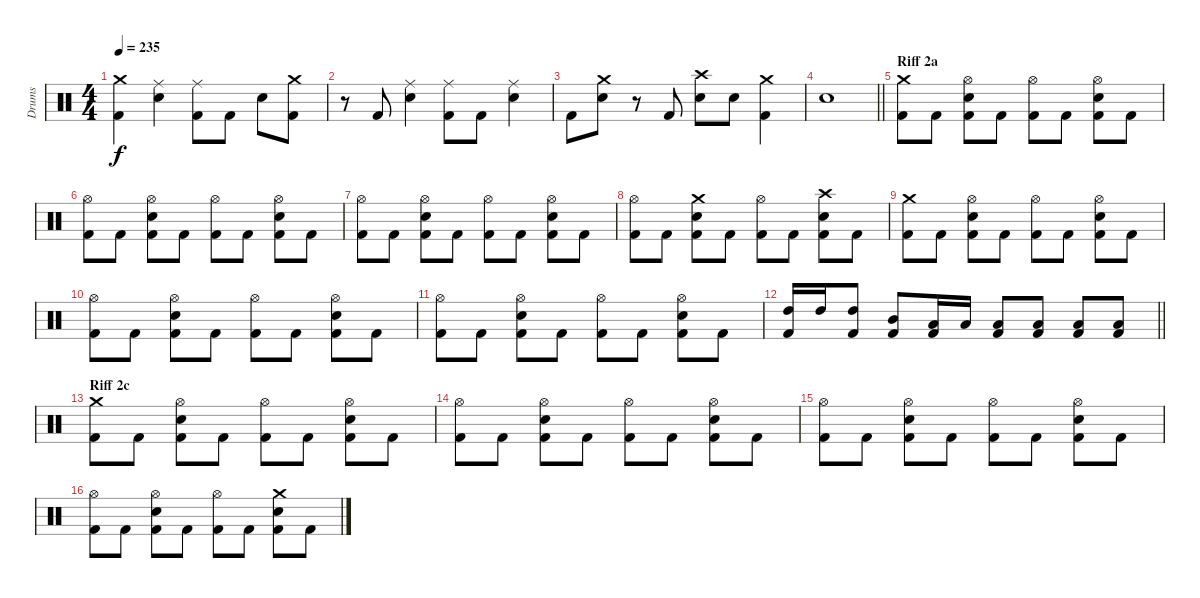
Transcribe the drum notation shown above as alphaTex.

\track ("Drums" "Drums") {instrument percussion}
\staff {score}
\articulation defaults
\ts (4 4)
\tempo 235
\clef neutral
\ks aminor
("Crash medium (hit)" "Kick (hit) 2").4{dy f} ("Ride (middle)" "Electric Snare (hit)").4 ("Ride (middle)" "Kick (hit) 2").8 "Kick (hit) 2".8 "Electric Snare (hit)".8 ("Kick (hit) 2" "Crash medium (hit)").8 |
r.8 "Kick (hit) 2".8 ("Electric Snare (hit)" "Ride (middle)").4 ("Kick (hit) 2" "Ride (middle)").8 "Kick (hit) 2".8 ("Electric Snare (hit)" "Ride (middle)").4 |
"Kick (hit) 2".8 ("Crash medium (hit)" "Electric Snare (hit)").8 r.8 "Kick (hit) 2".8 ("Electric Snare (hit)" "Crash high (hit)").8 "Electric Snare (hit)".8 ("Kick (hit) 2" "Crash medium (hit)").4 |
\barLineRight lightlight "Electric Snare (hit)".1
|
\section ("" "Riff 2a")
("Crash medium (hit)" "Kick (hit) 2").8 "Kick (hit) 2".8 ("Electric Snare (hit)" "Kick (hit) 2" "Hi-Hat (open)").8 "Kick (hit) 2".8 ("Hi-Hat (open)" "Kick (hit) 2").8 "Kick (hit) 2".8 ("Hi-Hat (open)" "Kick (hit) 2" "Electric Snare (hit)").8 "Kick (hit) 2".8 |
("Hi-Hat (open)" "Kick (hit) 2").8 "Kick (hit) 2".8 ("Hi-Hat (open)" "Kick (hit) 2" "Electric Snare (hit)").8 "Kick (hit) 2".8 ("Hi-Hat (open)" "Kick (hit) 2").8 "Kick (hit) 2".8 ("Hi-Hat (open)" "Kick (hit) 2" "Electric Snare (hit)").8 "Kick (hit) 2".8 |
("Hi-Hat (open)" "Kick (hit) 2").8 "Kick (hit) 2".8 ("Hi-Hat (open)" "Kick (hit) 2" "Electric Snare (hit)").8 "Kick (hit) 2".8 ("Hi-Hat (open)" "Kick (hit) 2").8 "Kick (hit) 2".8 ("Hi-Hat (open)" "Kick (hit) 2" "Electric Snare (hit)").8 "Kick (hit) 2".8 |
("Hi-Hat (open)" "Kick (hit) 2").8 "Kick (hit) 2".8 ("Crash medium (hit)" "Kick (hit) 2" "Electric Snare (hit)").8 "Kick (hit) 2".8 ("Hi-Hat (open)" "Kick (hit) 2").8 "Kick (hit) 2".8 ("Crash high (hit)" "Kick (hit) 2" "Electric Snare (hit)").8 "Kick (hit) 2".8 |
("Crash medium (hit)" "Kick (hit) 2").8 "Kick (hit) 2".8 ("Electric Snare (hit)" "Kick (hit) 2" "Hi-Hat (open)").8 "Kick (hit) 2".8 ("Hi-Hat (open)" "Kick (hit) 2").8 "Kick (hit) 2".8 ("Hi-Hat (open)" "Kick (hit) 2" "Electric Snare (hit)").8 "Kick (hit) 2".8 |
("Hi-Hat (open)" "Kick (hit) 2").8 "Kick (hit) 2".8 ("Hi-Hat (open)" "Kick (hit) 2" "Electric Snare (hit)").8 "Kick (hit) 2".8 ("Hi-Hat (open)" "Kick (hit) 2").8 "Kick (hit) 2".8 ("Hi-Hat (open)" "Kick (hit) 2" "Electric Snare (hit)").8 "Kick (hit) 2".8 |
("Hi-Hat (open)" "Kick (hit) 2").8 "Kick (hit) 2".8 ("Hi-Hat (open)" "Kick (hit) 2" "Electric Snare (hit)").8 "Kick (hit) 2".8 ("Hi-Hat (open)" "Kick (hit) 2").8 "Kick (hit) 2".8 ("Hi-Hat (open)" "Kick (hit) 2" "Electric Snare (hit)").8 "Kick (hit) 2".8 |
\barLineRight lightlight
("High Tom (hit)" "Kick (hit) 2").16 "High Tom (hit)".16 ("High Tom (hit)" "Kick (hit) 2").8 ("Mid Tom (hit)" "Kick (hit) 2").8 ("Low Tom (hit)" "Kick (hit) 2").16 "Low Tom (hit)".16 ("Low Tom (hit)" "Kick (hit) 2").8 ("Low Tom (hit)" "Kick (hit) 2").8 ("Kick (hit) 2" "Low Floor Tom (hit)").8 ("Kick (hit) 2" "Low Floor Tom (hit)").8 |
\section ("" "Riff 2c")
("Crash medium (hit)" "Kick (hit) 2").8 "Kick (hit) 2".8 ("Electric Snare (hit)" "Kick (hit) 2" "Hi-Hat (open)").8 "Kick (hit) 2".8 ("Hi-Hat (open)" "Kick (hit) 2").8 "Kick (hit) 2".8 ("Hi-Hat (open)" "Kick (hit) 2" "Electric Snare (hit)").8 "Kick (hit) 2".8 |
("Hi-Hat (open)" "Kick (hit) 2").8 "Kick (hit) 2".8 ("Hi-Hat (open)" "Kick (hit) 2" "Electric Snare (hit)").8 "Kick (hit) 2".8 ("Hi-Hat (open)" "Kick (hit) 2").8 "Kick (hit) 2".8 ("Hi-Hat (open)" "Kick (hit) 2" "Electric Snare (hit)").8 "Kick (hit) 2".8 |
("Hi-Hat (open)" "Kick (hit) 2").8 "Kick (hit) 2".8 ("Hi-Hat (open)" "Kick (hit) 2" "Electric Snare (hit)").8 "Kick (hit) 2".8 ("Hi-Hat (open)" "Kick (hit) 2").8 "Kick (hit) 2".8 ("Hi-Hat (open)" "Kick (hit) 2" "Electric Snare (hit)").8 "Kick (hit) 2".8 |
("Hi-Hat (open)" "Kick (hit) 2").8 "Kick (hit) 2".8 ("Hi-Hat (open)" "Kick (hit) 2" "Electric Snare (hit)").8 "Kick (hit) 2".8 ("Hi-Hat (open)" "Kick (hit) 2").8 "Kick (hit) 2".8 ("Crash medium (hit)" "Kick (hit) 2" "Electric Snare (hit)").8 "Kick (hit) 2".8
